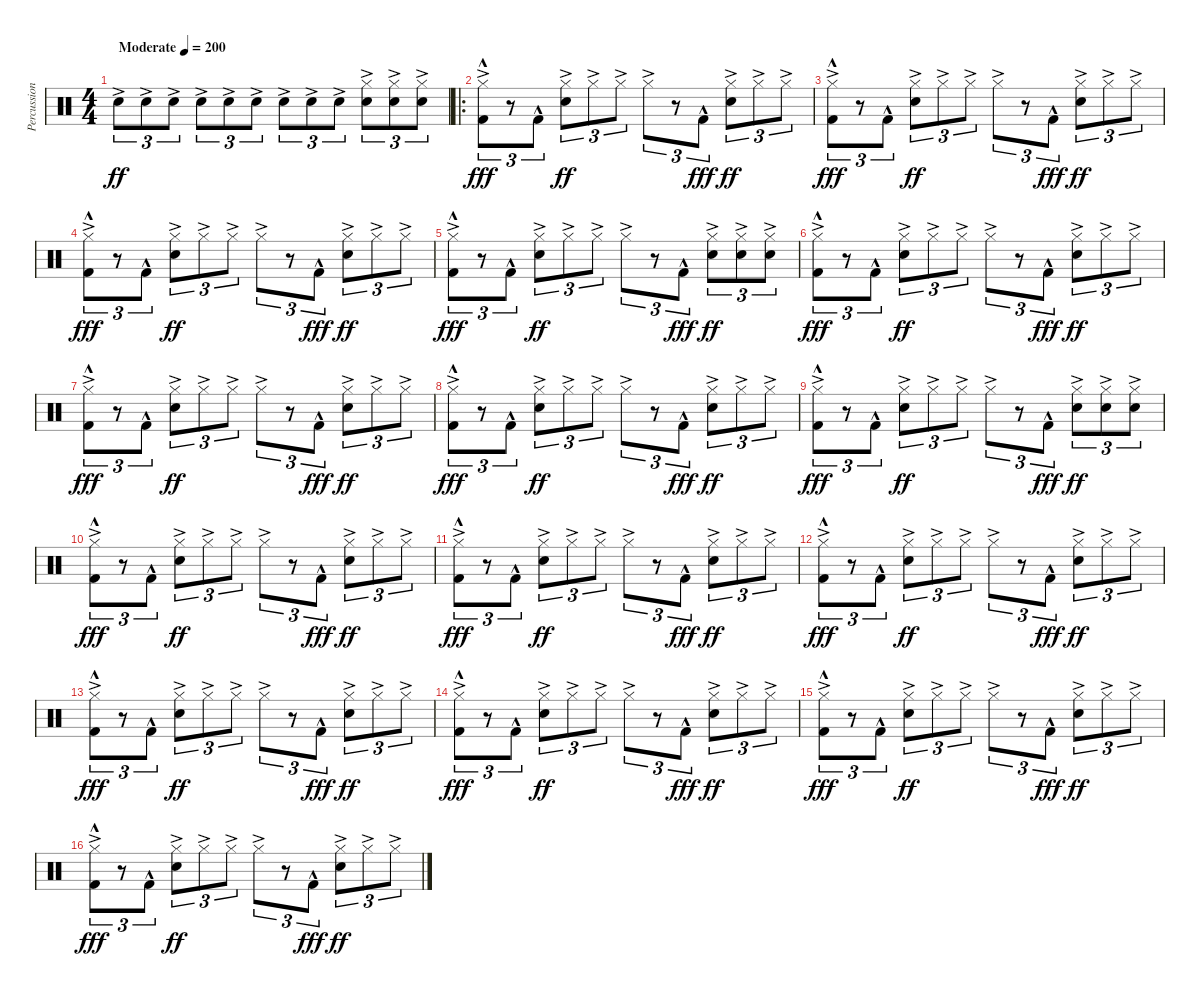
\track ("Percussion" "Percussion") {instrument percussion}
\staff {score}
\articulation defaults
\ts (4 4)
\tempo (200 "Moderate")
\clef neutral
\ks c "Snare (hit) 2"{ac}.8{tu (3 2) dy ff} "Snare (hit) 2"{ac}.8{tu (3 2)} "Snare (hit) 2"{ac}.8{tu (3 2)} "Snare (hit) 2"{ac}.8{tu (3 2)} "Snare (hit) 2"{ac}.8{tu (3 2)} "Snare (hit) 2"{ac}.8{tu (3 2)} "Snare (hit) 2"{ac}.8{tu (3 2)} "Snare (hit) 2"{ac}.8{tu (3 2)} "Snare (hit) 2"{ac}.8{tu (3 2)}
("Hi-Hat (closed)"{ac} "Snare (hit) 2"{ac}).8{tu (3 2)} ("Hi-Hat (closed)"{ac} "Snare (hit) 2"{ac}).8{tu (3 2)} ("Hi-Hat (closed)"{ac} "Snare (hit) 2"{ac}).8{tu (3 2)} |
\ro
("Hi-Hat (closed)"{ac} "Kick (hit) 2"{hac}).8{tu (3 2) dy fff} r.8{tu (3 2)} "Kick (hit) 2"{hac}.8{tu (3 2)} ("Hi-Hat (closed)"{ac} "Snare (hit) 2"{ac}).8{tu (3 2) dy ff} "Hi-Hat (closed)"{ac}.8{tu (3 2)} "Hi-Hat (closed)"{ac}.8{tu (3 2)} "Hi-Hat (closed)"{ac}.8{tu (3 2)} r.8{tu (3 2)} "Kick (hit) 2"{hac}.8{tu (3 2) dy fff} ("Hi-Hat (closed)"{ac} "Snare (hit) 2"{ac}).8{tu (3 2) dy ff} "Hi-Hat (closed)"{ac}.8{tu (3 2)} "Hi-Hat (closed)"{ac}.8{tu (3 2)} |
("Hi-Hat (closed)"{ac} "Kick (hit) 2"{hac}).8{tu (3 2) dy fff} r.8{tu (3 2)} "Kick (hit) 2"{hac}.8{tu (3 2)} ("Hi-Hat (closed)"{ac} "Snare (hit) 2"{ac}).8{tu (3 2) dy ff} "Hi-Hat (closed)"{ac}.8{tu (3 2)} "Hi-Hat (closed)"{ac}.8{tu (3 2)} "Hi-Hat (closed)"{ac}.8{tu (3 2)} r.8{tu (3 2)} "Kick (hit) 2"{hac}.8{tu (3 2) dy fff} ("Hi-Hat (closed)"{ac} "Snare (hit) 2"{ac}).8{tu (3 2) dy ff} "Hi-Hat (closed)"{ac}.8{tu (3 2)} "Hi-Hat (closed)"{ac}.8{tu (3 2)} |
("Hi-Hat (closed)"{ac} "Kick (hit) 2"{hac}).8{tu (3 2) dy fff} r.8{tu (3 2)} "Kick (hit) 2"{hac}.8{tu (3 2)} ("Hi-Hat (closed)"{ac} "Snare (hit) 2"{ac}).8{tu (3 2) dy ff} "Hi-Hat (closed)"{ac}.8{tu (3 2)} "Hi-Hat (closed)"{ac}.8{tu (3 2)} "Hi-Hat (closed)"{ac}.8{tu (3 2)} r.8{tu (3 2)} "Kick (hit) 2"{hac}.8{tu (3 2) dy fff} ("Hi-Hat (closed)"{ac} "Snare (hit) 2"{ac}).8{tu (3 2) dy ff} "Hi-Hat (closed)"{ac}.8{tu (3 2)} "Hi-Hat (closed)"{ac}.8{tu (3 2)} |
("Hi-Hat (closed)"{ac} "Kick (hit) 2"{hac}).8{tu (3 2) dy fff} r.8{tu (3 2)} "Kick (hit) 2"{hac}.8{tu (3 2)} ("Hi-Hat (closed)"{ac} "Snare (hit) 2"{ac}).8{tu (3 2) dy ff} "Hi-Hat (closed)"{ac}.8{tu (3 2)} "Hi-Hat (closed)"{ac}.8{tu (3 2)} "Hi-Hat (closed)"{ac}.8{tu (3 2)} r.8{tu (3 2)} "Kick (hit) 2"{hac}.8{tu (3 2) dy fff} ("Hi-Hat (closed)"{ac} "Snare (hit) 2"{ac}).8{tu (3 2) dy ff} ("Hi-Hat (closed)"{ac} "Snare (hit) 2"{ac}).8{tu (3 2)} ("Hi-Hat (closed)"{ac} "Snare (hit) 2"{ac}).8{tu (3 2)} |
("Hi-Hat (closed)"{ac} "Kick (hit) 2"{hac}).8{tu (3 2) dy fff} r.8{tu (3 2)} "Kick (hit) 2"{hac}.8{tu (3 2)} ("Hi-Hat (closed)"{ac} "Snare (hit) 2"{ac}).8{tu (3 2) dy ff} "Hi-Hat (closed)"{ac}.8{tu (3 2)} "Hi-Hat (closed)"{ac}.8{tu (3 2)} "Hi-Hat (closed)"{ac}.8{tu (3 2)} r.8{tu (3 2)} "Kick (hit) 2"{hac}.8{tu (3 2) dy fff} ("Hi-Hat (closed)"{ac} "Snare (hit) 2"{ac}).8{tu (3 2) dy ff} "Hi-Hat (closed)"{ac}.8{tu (3 2)} "Hi-Hat (closed)"{ac}.8{tu (3 2)} |
("Hi-Hat (closed)"{ac} "Kick (hit) 2"{hac}).8{tu (3 2) dy fff} r.8{tu (3 2)} "Kick (hit) 2"{hac}.8{tu (3 2)} ("Hi-Hat (closed)"{ac} "Snare (hit) 2"{ac}).8{tu (3 2) dy ff} "Hi-Hat (closed)"{ac}.8{tu (3 2)} "Hi-Hat (closed)"{ac}.8{tu (3 2)} "Hi-Hat (closed)"{ac}.8{tu (3 2)} r.8{tu (3 2)} "Kick (hit) 2"{hac}.8{tu (3 2) dy fff} ("Hi-Hat (closed)"{ac} "Snare (hit) 2"{ac}).8{tu (3 2) dy ff} "Hi-Hat (closed)"{ac}.8{tu (3 2)} "Hi-Hat (closed)"{ac}.8{tu (3 2)} |
("Hi-Hat (closed)"{ac} "Kick (hit) 2"{hac}).8{tu (3 2) dy fff} r.8{tu (3 2)} "Kick (hit) 2"{hac}.8{tu (3 2)} ("Hi-Hat (closed)"{ac} "Snare (hit) 2"{ac}).8{tu (3 2) dy ff} "Hi-Hat (closed)"{ac}.8{tu (3 2)} "Hi-Hat (closed)"{ac}.8{tu (3 2)} "Hi-Hat (closed)"{ac}.8{tu (3 2)} r.8{tu (3 2)} "Kick (hit) 2"{hac}.8{tu (3 2) dy fff} ("Hi-Hat (closed)"{ac} "Snare (hit) 2"{ac}).8{tu (3 2) dy ff} "Hi-Hat (closed)"{ac}.8{tu (3 2)} "Hi-Hat (closed)"{ac}.8{tu (3 2)} |
("Hi-Hat (closed)"{ac} "Kick (hit) 2"{hac}).8{tu (3 2) dy fff} r.8{tu (3 2)} "Kick (hit) 2"{hac}.8{tu (3 2)} ("Hi-Hat (closed)"{ac} "Snare (hit) 2"{ac}).8{tu (3 2) dy ff} "Hi-Hat (closed)"{ac}.8{tu (3 2)} "Hi-Hat (closed)"{ac}.8{tu (3 2)} "Hi-Hat (closed)"{ac}.8{tu (3 2)} r.8{tu (3 2)} "Kick (hit) 2"{hac}.8{tu (3 2) dy fff} ("Hi-Hat (closed)"{ac} "Snare (hit) 2"{ac}).8{tu (3 2) dy ff} ("Hi-Hat (closed)"{ac} "Snare (hit) 2"{ac}).8{tu (3 2)} ("Hi-Hat (closed)"{ac} "Snare (hit) 2"{ac}).8{tu (3 2)} |
("Hi-Hat (closed)"{ac} "Kick (hit) 2"{hac}).8{tu (3 2) dy fff} r.8{tu (3 2)} "Kick (hit) 2"{hac}.8{tu (3 2)} ("Hi-Hat (closed)"{ac} "Snare (hit) 2"{ac}).8{tu (3 2) dy ff} "Hi-Hat (closed)"{ac}.8{tu (3 2)} "Hi-Hat (closed)"{ac}.8{tu (3 2)} "Hi-Hat (closed)"{ac}.8{tu (3 2)} r.8{tu (3 2)} "Kick (hit) 2"{hac}.8{tu (3 2) dy fff} ("Hi-Hat (closed)"{ac} "Snare (hit) 2"{ac}).8{tu (3 2) dy ff} "Hi-Hat (closed)"{ac}.8{tu (3 2)} "Hi-Hat (closed)"{ac}.8{tu (3 2)} |
("Hi-Hat (closed)"{ac} "Kick (hit) 2"{hac}).8{tu (3 2) dy fff} r.8{tu (3 2)} "Kick (hit) 2"{hac}.8{tu (3 2)} ("Hi-Hat (closed)"{ac} "Snare (hit) 2"{ac}).8{tu (3 2) dy ff} "Hi-Hat (closed)"{ac}.8{tu (3 2)} "Hi-Hat (closed)"{ac}.8{tu (3 2)} "Hi-Hat (closed)"{ac}.8{tu (3 2)} r.8{tu (3 2)} "Kick (hit) 2"{hac}.8{tu (3 2) dy fff} ("Hi-Hat (closed)"{ac} "Snare (hit) 2"{ac}).8{tu (3 2) dy ff} "Hi-Hat (closed)"{ac}.8{tu (3 2)} "Hi-Hat (closed)"{ac}.8{tu (3 2)} |
("Hi-Hat (closed)"{ac} "Kick (hit) 2"{hac}).8{tu (3 2) dy fff} r.8{tu (3 2)} "Kick (hit) 2"{hac}.8{tu (3 2)} ("Hi-Hat (closed)"{ac} "Snare (hit) 2"{ac}).8{tu (3 2) dy ff} "Hi-Hat (closed)"{ac}.8{tu (3 2)} "Hi-Hat (closed)"{ac}.8{tu (3 2)} "Hi-Hat (closed)"{ac}.8{tu (3 2)} r.8{tu (3 2)} "Kick (hit) 2"{hac}.8{tu (3 2) dy fff} ("Hi-Hat (closed)"{ac} "Snare (hit) 2"{ac}).8{tu (3 2) dy ff} "Hi-Hat (closed)"{ac}.8{tu (3 2)} "Hi-Hat (closed)"{ac}.8{tu (3 2)} |
("Hi-Hat (closed)"{ac} "Kick (hit) 2"{hac}).8{tu (3 2) dy fff} r.8{tu (3 2)} "Kick (hit) 2"{hac}.8{tu (3 2)} ("Hi-Hat (closed)"{ac} "Snare (hit) 2"{ac}).8{tu (3 2) dy ff} "Hi-Hat (closed)"{ac}.8{tu (3 2)} "Hi-Hat (closed)"{ac}.8{tu (3 2)} "Hi-Hat (closed)"{ac}.8{tu (3 2)} r.8{tu (3 2)} "Kick (hit) 2"{hac}.8{tu (3 2) dy fff} ("Hi-Hat (closed)"{ac} "Snare (hit) 2"{ac}).8{tu (3 2) dy ff} "Hi-Hat (closed)"{ac}.8{tu (3 2)} "Hi-Hat (closed)"{ac}.8{tu (3 2)} |
("Hi-Hat (closed)"{ac} "Kick (hit) 2"{hac}).8{tu (3 2) dy fff} r.8{tu (3 2)} "Kick (hit) 2"{hac}.8{tu (3 2)} ("Hi-Hat (closed)"{ac} "Snare (hit) 2"{ac}).8{tu (3 2) dy ff} "Hi-Hat (closed)"{ac}.8{tu (3 2)} "Hi-Hat (closed)"{ac}.8{tu (3 2)} "Hi-Hat (closed)"{ac}.8{tu (3 2)} r.8{tu (3 2)} "Kick (hit) 2"{hac}.8{tu (3 2) dy fff} ("Hi-Hat (closed)"{ac} "Snare (hit) 2"{ac}).8{tu (3 2) dy ff} "Hi-Hat (closed)"{ac}.8{tu (3 2)} "Hi-Hat (closed)"{ac}.8{tu (3 2)} |
("Hi-Hat (closed)"{ac} "Kick (hit) 2"{hac}).8{tu (3 2) dy fff} r.8{tu (3 2)} "Kick (hit) 2"{hac}.8{tu (3 2)} ("Hi-Hat (closed)"{ac} "Snare (hit) 2"{ac}).8{tu (3 2) dy ff} "Hi-Hat (closed)"{ac}.8{tu (3 2)} "Hi-Hat (closed)"{ac}.8{tu (3 2)} "Hi-Hat (closed)"{ac}.8{tu (3 2)} r.8{tu (3 2)} "Kick (hit) 2"{hac}.8{tu (3 2) dy fff} ("Hi-Hat (closed)"{ac} "Snare (hit) 2"{ac}).8{tu (3 2) dy ff} "Hi-Hat (closed)"{ac}.8{tu (3 2)} "Hi-Hat (closed)"{ac}.8{tu (3 2)} |
("Hi-Hat (closed)"{ac} "Kick (hit) 2"{hac}).8{tu (3 2) dy fff} r.8{tu (3 2)} "Kick (hit) 2"{hac}.8{tu (3 2)} ("Hi-Hat (closed)"{ac} "Snare (hit) 2"{ac}).8{tu (3 2) dy ff} "Hi-Hat (closed)"{ac}.8{tu (3 2)} "Hi-Hat (closed)"{ac}.8{tu (3 2)} "Hi-Hat (closed)"{ac}.8{tu (3 2)} r.8{tu (3 2)} "Kick (hit) 2"{hac}.8{tu (3 2) dy fff} ("Hi-Hat (closed)"{ac} "Snare (hit) 2"{ac}).8{tu (3 2) dy ff} "Hi-Hat (closed)"{ac}.8{tu (3 2)} "Hi-Hat (closed)"{ac}.8{tu (3 2)}
